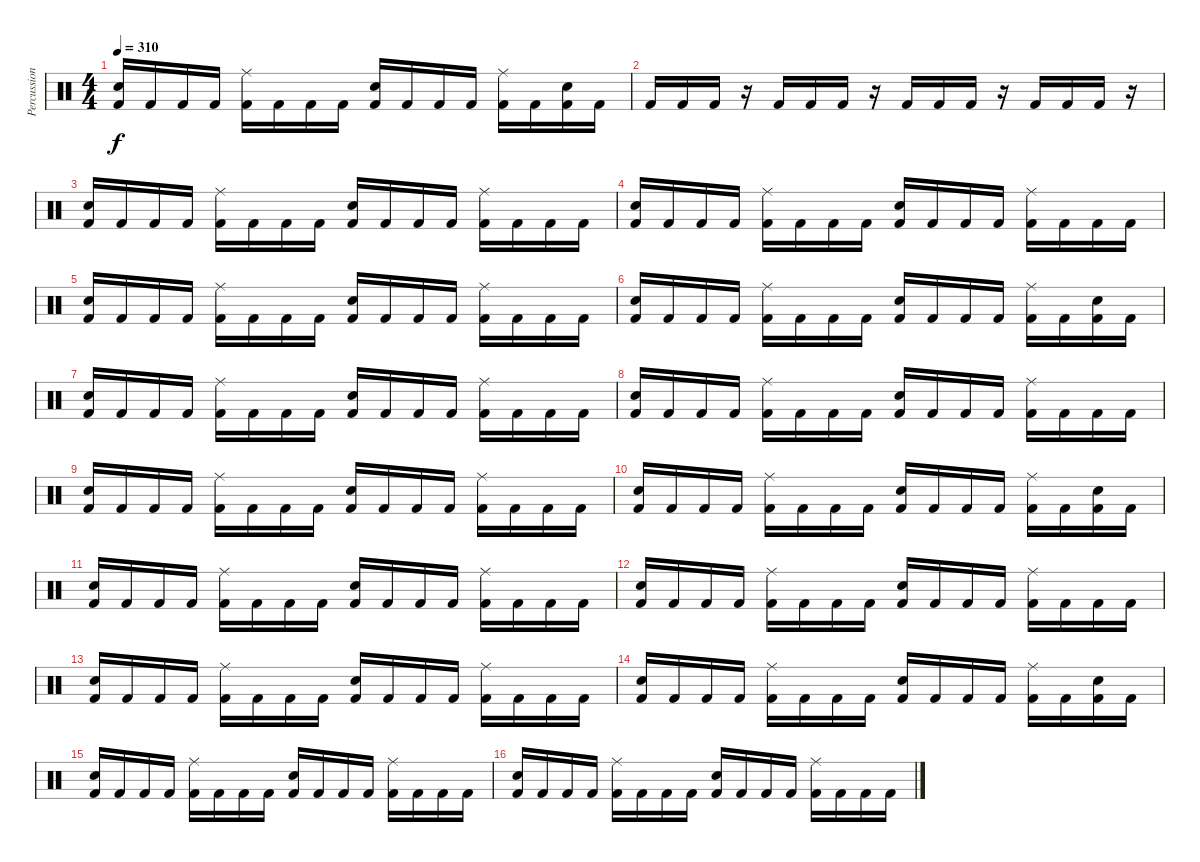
\track ("Percussions" "Percussion") {instrument percussion}
\staff {score}
\articulation defaults
\ts (4 4)
\tempo 310
\clef neutral
\ks c
("Snare (hit) 2" "Kick (hit) 2").16{dy f} "Kick (hit) 2".16 "Kick (hit) 2".16 "Kick (hit) 2".16 ("Ride (middle)" "Kick (hit) 2").16 "Kick (hit) 2".16 "Kick (hit) 2".16 "Kick (hit) 2".16 ("Snare (hit) 2" "Kick (hit) 2").16 "Kick (hit) 2".16 "Kick (hit) 2".16 "Kick (hit) 2".16 ("Ride (middle)" "Kick (hit) 2").16 "Kick (hit) 2".16 ("Snare (hit) 2" "Kick (hit) 2").16 "Kick (hit) 2".16 |
"Kick (hit) 2".16 "Kick (hit) 2".16 "Kick (hit) 2".16 r.16 "Kick (hit) 2".16 "Kick (hit) 2".16 "Kick (hit) 2".16 r.16 "Kick (hit) 2".16 "Kick (hit) 2".16 "Kick (hit) 2".16 r.16 "Kick (hit) 2".16 "Kick (hit) 2".16 "Kick (hit) 2".16 r.16 |
("Snare (hit) 2" "Kick (hit) 2").16 "Kick (hit) 2".16 "Kick (hit) 2".16 "Kick (hit) 2".16 ("Ride (middle)" "Kick (hit) 2").16 "Kick (hit) 2".16 "Kick (hit) 2".16 "Kick (hit) 2".16 ("Snare (hit) 2" "Kick (hit) 2").16 "Kick (hit) 2".16 "Kick (hit) 2".16 "Kick (hit) 2".16 ("Ride (middle)" "Kick (hit) 2").16 "Kick (hit) 2".16 "Kick (hit) 2".16 "Kick (hit) 2".16 |
("Snare (hit) 2" "Kick (hit) 2").16 "Kick (hit) 2".16 "Kick (hit) 2".16 "Kick (hit) 2".16 ("Ride (middle)" "Kick (hit) 2").16 "Kick (hit) 2".16 "Kick (hit) 2".16 "Kick (hit) 2".16 ("Snare (hit) 2" "Kick (hit) 2").16 "Kick (hit) 2".16 "Kick (hit) 2".16 "Kick (hit) 2".16 ("Ride (middle)" "Kick (hit) 2").16 "Kick (hit) 2".16 "Kick (hit) 2".16 "Kick (hit) 2".16 |
("Snare (hit) 2" "Kick (hit) 2").16 "Kick (hit) 2".16 "Kick (hit) 2".16 "Kick (hit) 2".16 ("Ride (middle)" "Kick (hit) 2").16 "Kick (hit) 2".16 "Kick (hit) 2".16 "Kick (hit) 2".16 ("Snare (hit) 2" "Kick (hit) 2").16 "Kick (hit) 2".16 "Kick (hit) 2".16 "Kick (hit) 2".16 ("Ride (middle)" "Kick (hit) 2").16 "Kick (hit) 2".16 "Kick (hit) 2".16 "Kick (hit) 2".16 |
("Snare (hit) 2" "Kick (hit) 2").16 "Kick (hit) 2".16 "Kick (hit) 2".16 "Kick (hit) 2".16 ("Ride (middle)" "Kick (hit) 2").16 "Kick (hit) 2".16 "Kick (hit) 2".16 "Kick (hit) 2".16 ("Snare (hit) 2" "Kick (hit) 2").16 "Kick (hit) 2".16 "Kick (hit) 2".16 "Kick (hit) 2".16 ("Ride (middle)" "Kick (hit) 2").16 "Kick (hit) 2".16 ("Snare (hit) 2" "Kick (hit) 2").16 "Kick (hit) 2".16 |
("Snare (hit) 2" "Kick (hit) 2").16 "Kick (hit) 2".16 "Kick (hit) 2".16 "Kick (hit) 2".16 ("Ride (middle)" "Kick (hit) 2").16 "Kick (hit) 2".16 "Kick (hit) 2".16 "Kick (hit) 2".16 ("Snare (hit) 2" "Kick (hit) 2").16 "Kick (hit) 2".16 "Kick (hit) 2".16 "Kick (hit) 2".16 ("Ride (middle)" "Kick (hit) 2").16 "Kick (hit) 2".16 "Kick (hit) 2".16 "Kick (hit) 2".16 |
("Snare (hit) 2" "Kick (hit) 2").16 "Kick (hit) 2".16 "Kick (hit) 2".16 "Kick (hit) 2".16 ("Ride (middle)" "Kick (hit) 2").16 "Kick (hit) 2".16 "Kick (hit) 2".16 "Kick (hit) 2".16 ("Snare (hit) 2" "Kick (hit) 2").16 "Kick (hit) 2".16 "Kick (hit) 2".16 "Kick (hit) 2".16 ("Ride (middle)" "Kick (hit) 2").16 "Kick (hit) 2".16 "Kick (hit) 2".16 "Kick (hit) 2".16 |
("Snare (hit) 2" "Kick (hit) 2").16 "Kick (hit) 2".16 "Kick (hit) 2".16 "Kick (hit) 2".16 ("Ride (middle)" "Kick (hit) 2").16 "Kick (hit) 2".16 "Kick (hit) 2".16 "Kick (hit) 2".16 ("Snare (hit) 2" "Kick (hit) 2").16 "Kick (hit) 2".16 "Kick (hit) 2".16 "Kick (hit) 2".16 ("Ride (middle)" "Kick (hit) 2").16 "Kick (hit) 2".16 "Kick (hit) 2".16 "Kick (hit) 2".16 |
("Snare (hit) 2" "Kick (hit) 2").16 "Kick (hit) 2".16 "Kick (hit) 2".16 "Kick (hit) 2".16 ("Ride (middle)" "Kick (hit) 2").16 "Kick (hit) 2".16 "Kick (hit) 2".16 "Kick (hit) 2".16 ("Snare (hit) 2" "Kick (hit) 2").16 "Kick (hit) 2".16 "Kick (hit) 2".16 "Kick (hit) 2".16 ("Ride (middle)" "Kick (hit) 2").16 "Kick (hit) 2".16 ("Snare (hit) 2" "Kick (hit) 2").16 "Kick (hit) 2".16 |
("Snare (hit) 2" "Kick (hit) 2").16 "Kick (hit) 2".16 "Kick (hit) 2".16 "Kick (hit) 2".16 ("Ride (middle)" "Kick (hit) 2").16 "Kick (hit) 2".16 "Kick (hit) 2".16 "Kick (hit) 2".16 ("Snare (hit) 2" "Kick (hit) 2").16 "Kick (hit) 2".16 "Kick (hit) 2".16 "Kick (hit) 2".16 ("Ride (middle)" "Kick (hit) 2").16 "Kick (hit) 2".16 "Kick (hit) 2".16 "Kick (hit) 2".16 |
("Snare (hit) 2" "Kick (hit) 2").16 "Kick (hit) 2".16 "Kick (hit) 2".16 "Kick (hit) 2".16 ("Ride (middle)" "Kick (hit) 2").16 "Kick (hit) 2".16 "Kick (hit) 2".16 "Kick (hit) 2".16 ("Snare (hit) 2" "Kick (hit) 2").16 "Kick (hit) 2".16 "Kick (hit) 2".16 "Kick (hit) 2".16 ("Ride (middle)" "Kick (hit) 2").16 "Kick (hit) 2".16 "Kick (hit) 2".16 "Kick (hit) 2".16 |
("Snare (hit) 2" "Kick (hit) 2").16 "Kick (hit) 2".16 "Kick (hit) 2".16 "Kick (hit) 2".16 ("Ride (middle)" "Kick (hit) 2").16 "Kick (hit) 2".16 "Kick (hit) 2".16 "Kick (hit) 2".16 ("Snare (hit) 2" "Kick (hit) 2").16 "Kick (hit) 2".16 "Kick (hit) 2".16 "Kick (hit) 2".16 ("Ride (middle)" "Kick (hit) 2").16 "Kick (hit) 2".16 "Kick (hit) 2".16 "Kick (hit) 2".16 |
("Snare (hit) 2" "Kick (hit) 2").16 "Kick (hit) 2".16 "Kick (hit) 2".16 "Kick (hit) 2".16 ("Ride (middle)" "Kick (hit) 2").16 "Kick (hit) 2".16 "Kick (hit) 2".16 "Kick (hit) 2".16 ("Snare (hit) 2" "Kick (hit) 2").16 "Kick (hit) 2".16 "Kick (hit) 2".16 "Kick (hit) 2".16 ("Ride (middle)" "Kick (hit) 2").16 "Kick (hit) 2".16 ("Snare (hit) 2" "Kick (hit) 2").16 "Kick (hit) 2".16 |
("Snare (hit) 2" "Kick (hit) 2").16 "Kick (hit) 2".16 "Kick (hit) 2".16 "Kick (hit) 2".16 ("Ride (middle)" "Kick (hit) 2").16 "Kick (hit) 2".16 "Kick (hit) 2".16 "Kick (hit) 2".16 ("Snare (hit) 2" "Kick (hit) 2").16 "Kick (hit) 2".16 "Kick (hit) 2".16 "Kick (hit) 2".16 ("Ride (middle)" "Kick (hit) 2").16 "Kick (hit) 2".16 "Kick (hit) 2".16 "Kick (hit) 2".16 |
("Snare (hit) 2" "Kick (hit) 2").16 "Kick (hit) 2".16 "Kick (hit) 2".16 "Kick (hit) 2".16 ("Ride (middle)" "Kick (hit) 2").16 "Kick (hit) 2".16 "Kick (hit) 2".16 "Kick (hit) 2".16 ("Snare (hit) 2" "Kick (hit) 2").16 "Kick (hit) 2".16 "Kick (hit) 2".16 "Kick (hit) 2".16 ("Ride (middle)" "Kick (hit) 2").16 "Kick (hit) 2".16 "Kick (hit) 2".16 "Kick (hit) 2".16
